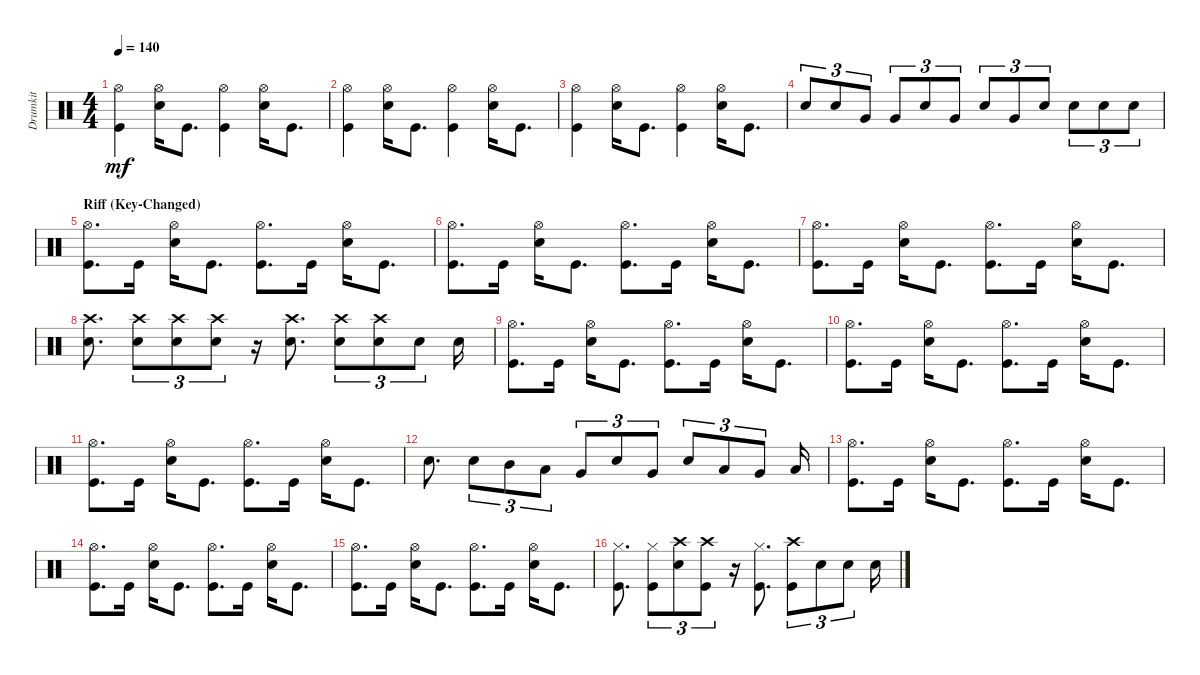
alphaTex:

\track ("Drumkit" "Drumkit") {instrument percussion}
\staff {score}
\articulation defaults
\ts (4 4)
\tempo 140
\clef neutral
\ks c
("Kick (hit)" "Hi-Hat (open)").4{dy mf} ("Snare (hit) 2" "Hi-Hat (open)").16 "Kick (hit)".8{d} ("Kick (hit)" "Hi-Hat (open)").4 ("Snare (hit) 2" "Hi-Hat (open)").16 "Kick (hit)".8{d} |
("Kick (hit)" "Hi-Hat (open)").4 ("Snare (hit) 2" "Hi-Hat (open)").16 "Kick (hit)".8{d} ("Kick (hit)" "Hi-Hat (open)").4 ("Snare (hit) 2" "Hi-Hat (open)").16 "Kick (hit)".8{d} |
("Kick (hit)" "Hi-Hat (open)").4 ("Snare (hit) 2" "Hi-Hat (open)").16 "Kick (hit)".8{d} ("Kick (hit)" "Hi-Hat (open)").4 ("Snare (hit) 2" "Hi-Hat (open)").16 "Kick (hit)".8{d} |
"Snare (hit) 2".8{tu (3 2)} "Snare (hit) 2".8{tu (3 2)} "Very Low Tom (hit)".8{tu (3 2)} "Very Low Tom (hit)".8{tu (3 2)} "Snare (hit) 2".8{tu (3 2)} "Very Low Tom (hit)".8{tu (3 2)} "Snare (hit) 2".8{tu (3 2)} "Very Low Tom (hit)".8{tu (3 2)} "Snare (hit) 2".8{tu (3 2)} "Snare (hit) 2".8{tu (3 2)} "Snare (hit) 2".8{tu (3 2)} "Snare (hit) 2".8{tu (3 2)} |
\section ("" "Riff (Key-Changed)")
("Kick (hit)" "Hi-Hat (open)").8{d} "Kick (hit)".16 ("Snare (hit) 2" "Hi-Hat (open)").16 "Kick (hit)".8{d} ("Kick (hit)" "Hi-Hat (open)").8{d} "Kick (hit)".16 ("Snare (hit) 2" "Hi-Hat (open)").16 "Kick (hit)".8{d} |
("Kick (hit)" "Hi-Hat (open)").8{d} "Kick (hit)".16 ("Snare (hit) 2" "Hi-Hat (open)").16 "Kick (hit)".8{d} ("Kick (hit)" "Hi-Hat (open)").8{d} "Kick (hit)".16 ("Snare (hit) 2" "Hi-Hat (open)").16 "Kick (hit)".8{d} |
("Kick (hit)" "Hi-Hat (open)").8{d} "Kick (hit)".16 ("Snare (hit) 2" "Hi-Hat (open)").16 "Kick (hit)".8{d} ("Kick (hit)" "Hi-Hat (open)").8{d} "Kick (hit)".16 ("Snare (hit) 2" "Hi-Hat (open)").16 "Kick (hit)".8{d} |
("Snare (hit) 2" "Crash high (hit)").8{d} ("Snare (hit) 2" "Crash high (hit)").8{tu (3 2)} ("Snare (hit) 2" "Crash high (hit)").8{tu (3 2)} ("Snare (hit) 2" "Crash high (hit)").8{tu (3 2)} r.16 ("Snare (hit) 2" "Crash high (hit)").8{d} ("Snare (hit) 2" "Crash high (hit)").8{tu (3 2)} ("Snare (hit) 2" "Crash high (hit)").8{tu (3 2)} "Snare (hit) 2".8{tu (3 2)} "Snare (hit) 2".16 |
("Kick (hit)" "Hi-Hat (open)").8{d} "Kick (hit)".16 ("Snare (hit) 2" "Hi-Hat (open)").16 "Kick (hit)".8{d} ("Kick (hit)" "Hi-Hat (open)").8{d} "Kick (hit)".16 ("Snare (hit) 2" "Hi-Hat (open)").16 "Kick (hit)".8{d} |
("Kick (hit)" "Hi-Hat (open)").8{d} "Kick (hit)".16 ("Snare (hit) 2" "Hi-Hat (open)").16 "Kick (hit)".8{d} ("Kick (hit)" "Hi-Hat (open)").8{d} "Kick (hit)".16 ("Snare (hit) 2" "Hi-Hat (open)").16 "Kick (hit)".8{d} |
("Kick (hit)" "Hi-Hat (open)").8{d} "Kick (hit)".16 ("Snare (hit) 2" "Hi-Hat (open)").16 "Kick (hit)".8{d} ("Kick (hit)" "Hi-Hat (open)").8{d} "Kick (hit)".16 ("Snare (hit) 2" "Hi-Hat (open)").16 "Kick (hit)".8{d} |
"Snare (hit) 2".8{d} "Snare (hit) 2".8{tu (3 2)} "Mid Tom (hit)".8{tu (3 2)} "Low Tom (hit)".8{tu (3 2)} "Very Low Tom (hit)".8{tu (3 2)} "Snare (hit) 2".8{tu (3 2)} "Very Low Tom (hit)".8{tu (3 2)} "Snare (hit) 2".8{tu (3 2)} "Low Tom (hit)".8{tu (3 2)} "Very Low Tom (hit)".8{tu (3 2)} "Low Floor Tom (hit)".16 |
("Kick (hit)" "Hi-Hat (open)").8{d} "Kick (hit)".16 ("Snare (hit) 2" "Hi-Hat (open)").16 "Kick (hit)".8{d} ("Kick (hit)" "Hi-Hat (open)").8{d} "Kick (hit)".16 ("Snare (hit) 2" "Hi-Hat (open)").16 "Kick (hit)".8{d} |
("Kick (hit)" "Hi-Hat (open)").8{d} "Kick (hit)".16 ("Snare (hit) 2" "Hi-Hat (open)").16 "Kick (hit)".8{d} ("Kick (hit)" "Hi-Hat (open)").8{d} "Kick (hit)".16 ("Snare (hit) 2" "Hi-Hat (open)").16 "Kick (hit)".8{d} |
("Kick (hit)" "Hi-Hat (open)").8{d} "Kick (hit)".16 ("Snare (hit) 2" "Hi-Hat (open)").16 "Kick (hit)".8{d} ("Kick (hit)" "Hi-Hat (open)").8{d} "Kick (hit)".16 ("Snare (hit) 2" "Hi-Hat (open)").16 "Kick (hit)".8{d} |
("Kick (hit)" "Hi-Hat (closed)").8{d} ("Kick (hit)" "Hi-Hat (closed)").8{tu (3 2)} ("Snare (hit) 2" "Crash high (hit)").8{tu (3 2)} ("Kick (hit)" "Crash high (hit)").8{tu (3 2)} r.16 ("Kick (hit)" "Hi-Hat (closed)").8{d} ("Kick (hit)" "Crash high (hit)").8{tu (3 2)} "Snare (hit) 2".8{tu (3 2)} "Snare (hit) 2".8{tu (3 2)} "Snare (hit) 2".16
